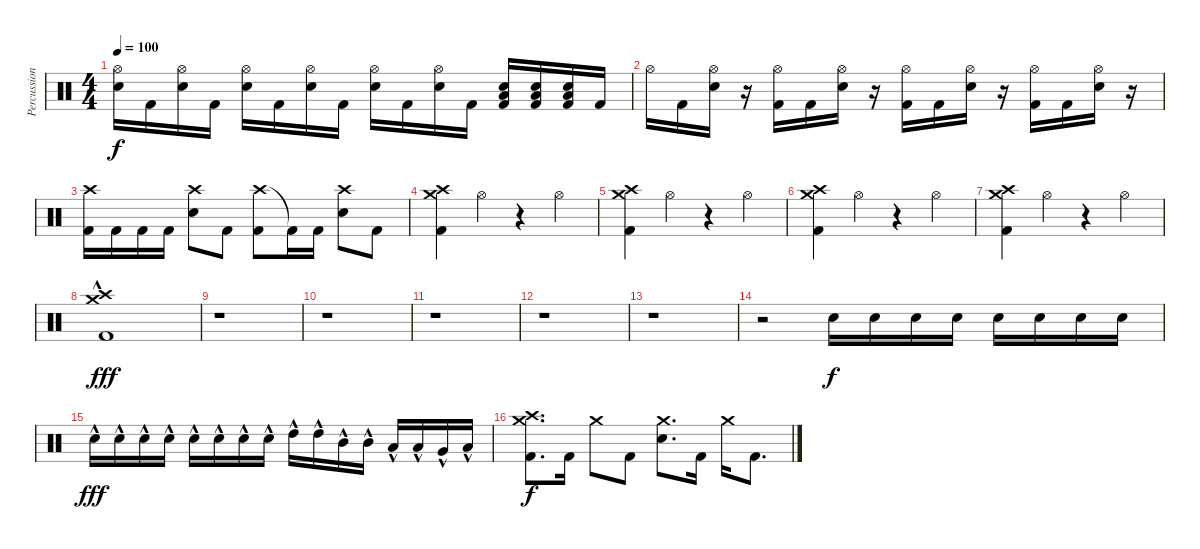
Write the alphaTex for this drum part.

\track ("Percussion" "Percussion") {instrument percussion}
\staff {score}
\articulation defaults
\ts (4 4)
\tempo 100
\clef neutral
\ks c
("Hi-Hat (open)" "Snare (hit) 2").16{dy f} "Kick (hit) 2".16 ("Hi-Hat (open)" "Snare (hit) 2").16 "Kick (hit) 2".16 ("Hi-Hat (open)" "Snare (hit) 2").16 "Kick (hit) 2".16 ("Hi-Hat (open)" "Snare (hit) 2").16 "Kick (hit) 2".16 ("Hi-Hat (open)" "Snare (hit) 2").16 "Kick (hit) 2".16 ("Hi-Hat (open)" "Snare (hit) 2").16 "Kick (hit) 2".16 ("Low Floor Tom (hit)" "Snare (hit) 2" "Kick (hit) 2").16 ("Low Floor Tom (hit)" "Snare (hit) 2" "Kick (hit) 2").16 ("Low Floor Tom (hit)" "Snare (hit) 2" "Kick (hit) 2").16 "Kick (hit) 2".16 |
"Hi-Hat (open)".16 "Kick (hit) 2".16 ("Hi-Hat (open)" "Snare (hit) 2").16 r.16 ("Hi-Hat (open)" "Kick (hit) 2").16 "Kick (hit) 2".16 ("Hi-Hat (open)" "Snare (hit) 2").16 r.16 ("Hi-Hat (open)" "Kick (hit) 2").16 "Kick (hit) 2".16 ("Hi-Hat (open)" "Snare (hit) 2").16 r.16 ("Hi-Hat (open)" "Kick (hit) 2").16 "Kick (hit) 2".16 ("Hi-Hat (open)" "Snare (hit) 2").16 r.16 |
("Crash high (hit)" "Kick (hit) 2").16 "Kick (hit) 2".16 "Kick (hit) 2".16 "Kick (hit) 2".16 ("Crash high (hit)" "Snare (hit) 2").8 "Kick (hit) 2".8 ("Crash high (hit)" "Kick (hit) 2").8 "Kick (hit) 2"{t}.16 "Kick (hit) 2".16 ("Crash high (hit)" "Snare (hit) 2").8 "Kick (hit) 2".8 |
("Crash medium (hit)" "Crash high (hit)" "Kick (hit) 2").4 "Hi-Hat (open)".4 r.4 "Hi-Hat (open)".4 |
("Crash medium (hit)" "Crash high (hit)" "Kick (hit) 2").4 "Hi-Hat (open)".4 r.4 "Hi-Hat (open)".4 |
("Crash medium (hit)" "Crash high (hit)" "Kick (hit) 2").4 "Hi-Hat (open)".4 r.4 "Hi-Hat (open)".4 |
("Crash medium (hit)" "Crash high (hit)" "Kick (hit) 2").4 "Hi-Hat (open)".4 r.4 "Hi-Hat (open)".4 |
("Crash medium (hit)" "Crash high (hit)" "Kick (hit) 2"{hac}).1{dy fff} |
r.1 |
r.1 |
r.1 |
r.1 |
r.1 |
r.2 "Snare (hit) 2".16{dy f} "Snare (hit) 2".16 "Snare (hit) 2".16 "Snare (hit) 2".16 "Snare (hit) 2".16 "Snare (hit) 2".16 "Snare (hit) 2".16 "Snare (hit) 2".16 |
"Snare (hit) 2"{hac}.16{dy fff} "Snare (hit) 2"{hac}.16 "Snare (hit) 2"{hac}.16 "Snare (hit) 2"{hac}.16 "Snare (hit) 2"{hac}.16 "Snare (hit) 2"{hac}.16 "Snare (hit) 2"{hac}.16 "Snare (hit) 2"{hac}.16 "High Tom (hit)"{hac}.16 "High Tom (hit)"{hac}.16 "Mid Tom (hit)"{hac}.16 "Mid Tom (hit)"{hac}.16 "Low Tom (hit)"{hac}.16 "Low Tom (hit)"{hac}.16 "Very Low Tom (hit)"{hac}.16 "Low Floor Tom (hit)"{hac}.16 |
("Crash high (hit)" "Kick (hit) 2" "Crash medium (hit)").8{d dy f} "Kick (hit) 2".16 "Crash medium (hit)".8 "Kick (hit) 2".8 ("Snare (hit) 2" "Crash medium (hit)").8{d} "Kick (hit) 2".16 "Crash medium (hit)".16 "Kick (hit) 2".8{d}
